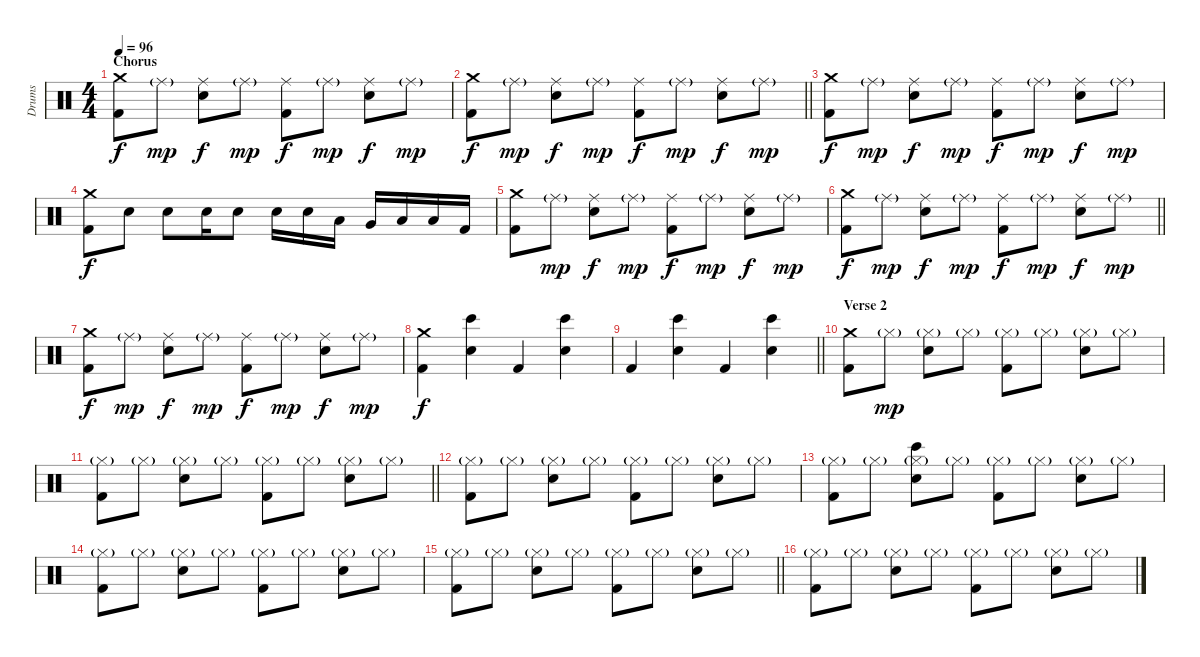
\track ("Drums" "Drums") {instrument percussion}
\staff {score}
\articulation defaults
\ts (4 4)
\section ("" "Chorus")
\tempo 96
\clef neutral
\ks c
("Crash medium (hit)" "Kick (hit) 2").8{dy f} "Ride (middle)"{g}.8{dy mp} ("Ride (middle)" "Snare (hit) 2").8{dy f} "Ride (middle)"{g}.8{dy mp} ("Ride (middle)" "Kick (hit) 2").8{dy f} "Ride (middle)"{g}.8{dy mp} ("Ride (middle)" "Snare (hit) 2").8{dy f} "Ride (middle)"{g}.8{dy mp} |
\barLineRight lightlight
("Crash medium (hit)" "Kick (hit) 2").8{dy f} "Ride (middle)"{g}.8{dy mp} ("Ride (middle)" "Snare (hit) 2").8{dy f} "Ride (middle)"{g}.8{dy mp} ("Ride (middle)" "Kick (hit) 2").8{dy f} "Ride (middle)"{g}.8{dy mp} ("Ride (middle)" "Snare (hit) 2").8{dy f} "Ride (middle)"{g}.8{dy mp} |
("Crash medium (hit)" "Kick (hit) 2").8{dy f} "Ride (middle)"{g}.8{dy mp} ("Ride (middle)" "Snare (hit) 2").8{dy f} "Ride (middle)"{g}.8{dy mp} ("Ride (middle)" "Kick (hit) 2").8{dy f} "Ride (middle)"{g}.8{dy mp} ("Ride (middle)" "Snare (hit) 2").8{dy f} "Ride (middle)"{g}.8{dy mp} |
("Crash medium (hit)" "Kick (hit) 2").8{dy f} "Snare (hit) 2".8 "Snare (hit) 2".8 "Snare (hit) 2".16 "Snare (hit) 2".8 "Snare (hit) 2".16 "Snare (hit) 2".16 "Low Tom (hit)".16 "Very Low Tom (hit)".16 "Low Floor Tom (hit)".16 "Low Floor Tom (hit)".16 "Kick (hit) 2".16 |
("Crash medium (hit)" "Kick (hit) 2").8 "Ride (middle)"{g}.8{dy mp} ("Ride (middle)" "Snare (hit) 2").8{dy f} "Ride (middle)"{g}.8{dy mp} ("Ride (middle)" "Kick (hit) 2").8{dy f} "Ride (middle)"{g}.8{dy mp} ("Ride (middle)" "Snare (hit) 2").8{dy f} "Ride (middle)"{g}.8{dy mp} |
\barLineRight lightlight
("Crash medium (hit)" "Kick (hit) 2").8{dy f} "Ride (middle)"{g}.8{dy mp} ("Ride (middle)" "Snare (hit) 2").8{dy f} "Ride (middle)"{g}.8{dy mp} ("Ride (middle)" "Kick (hit) 2").8{dy f} "Ride (middle)"{g}.8{dy mp} ("Ride (middle)" "Snare (hit) 2").8{dy f} "Ride (middle)"{g}.8{dy mp} |
("Crash medium (hit)" "Kick (hit) 2").8{dy f} "Ride (middle)"{g}.8{dy mp} ("Ride (middle)" "Snare (hit) 2").8{dy f} "Ride (middle)"{g}.8{dy mp} ("Ride (middle)" "Kick (hit) 2").8{dy f} "Ride (middle)"{g}.8{dy mp} ("Ride (middle)" "Snare (hit) 2").8{dy f} "Ride (middle)"{g}.8{dy mp} |
("Crash medium (hit)" "Kick (hit) 2").4{dy f} ("Snare (hit) 2" "Bongo High (hit)").4 "Kick (hit) 2".4 ("Snare (hit) 2" "Bongo High (hit)").4 |
\barLineRight lightlight "Kick (hit) 2".4
("Snare (hit) 2" "Bongo High (hit)").4 "Kick (hit) 2".4 ("Snare (hit) 2" "Bongo High (hit)").4 |
\section ("" "Verse 2")
("Crash medium (hit)" "Kick (hit) 2").8 "Hi-Hat (closed)"{g}.8{dy mp} ("Hi-Hat (closed)"{g} "Snare (hit) 2").8 "Hi-Hat (closed)"{g}.8 ("Hi-Hat (closed)"{g} "Kick (hit) 2").8 "Hi-Hat (closed)"{g}.8 ("Hi-Hat (closed)"{g} "Snare (hit) 2").8 "Hi-Hat (closed)"{g}.8 |
\barLineRight lightlight
("Hi-Hat (closed)"{g} "Kick (hit) 2").8 "Hi-Hat (closed)"{g}.8 ("Hi-Hat (closed)"{g} "Snare (hit) 2").8 "Hi-Hat (closed)"{g}.8 ("Hi-Hat (closed)"{g} "Kick (hit) 2").8 "Hi-Hat (closed)"{g}.8 ("Hi-Hat (closed)"{g} "Snare (hit) 2").8 "Hi-Hat (closed)"{g}.8 |
("Hi-Hat (closed)"{g} "Kick (hit) 2").8 "Hi-Hat (closed)"{g}.8 ("Hi-Hat (closed)"{g} "Snare (hit) 2").8 "Hi-Hat (closed)"{g}.8 ("Hi-Hat (closed)"{g} "Kick (hit) 2").8 "Hi-Hat (closed)"{g}.8 ("Hi-Hat (closed)"{g} "Snare (hit) 2").8 "Hi-Hat (closed)"{g}.8 |
("Hi-Hat (closed)"{g} "Kick (hit) 2").8 "Hi-Hat (closed)"{g}.8 ("Hi-Hat (closed)"{g} "Snare (hit) 2" "Bongo High (hit)").8 "Hi-Hat (closed)"{g}.8 ("Hi-Hat (closed)"{g} "Kick (hit) 2").8 "Hi-Hat (closed)"{g}.8 ("Hi-Hat (closed)"{g} "Snare (hit) 2").8 "Hi-Hat (closed)"{g}.8 |
("Hi-Hat (closed)"{g} "Kick (hit) 2").8 "Hi-Hat (closed)"{g}.8 ("Hi-Hat (closed)"{g} "Snare (hit) 2").8 "Hi-Hat (closed)"{g}.8 ("Hi-Hat (closed)"{g} "Kick (hit) 2").8 "Hi-Hat (closed)"{g}.8 ("Hi-Hat (closed)"{g} "Snare (hit) 2").8 "Hi-Hat (closed)"{g}.8 |
\barLineRight lightlight
("Hi-Hat (closed)"{g} "Kick (hit) 2").8 "Hi-Hat (closed)"{g}.8 ("Hi-Hat (closed)"{g} "Snare (hit) 2").8 "Hi-Hat (closed)"{g}.8 ("Hi-Hat (closed)"{g} "Kick (hit) 2").8 "Hi-Hat (closed)"{g}.8 ("Hi-Hat (closed)"{g} "Snare (hit) 2").8 "Hi-Hat (closed)"{g}.8 |
("Hi-Hat (closed)"{g} "Kick (hit) 2").8 "Hi-Hat (closed)"{g}.8 ("Hi-Hat (closed)"{g} "Snare (hit) 2").8 "Hi-Hat (closed)"{g}.8 ("Hi-Hat (closed)"{g} "Kick (hit) 2").8 "Hi-Hat (closed)"{g}.8 ("Hi-Hat (closed)"{g} "Snare (hit) 2").8 "Hi-Hat (closed)"{g}.8
